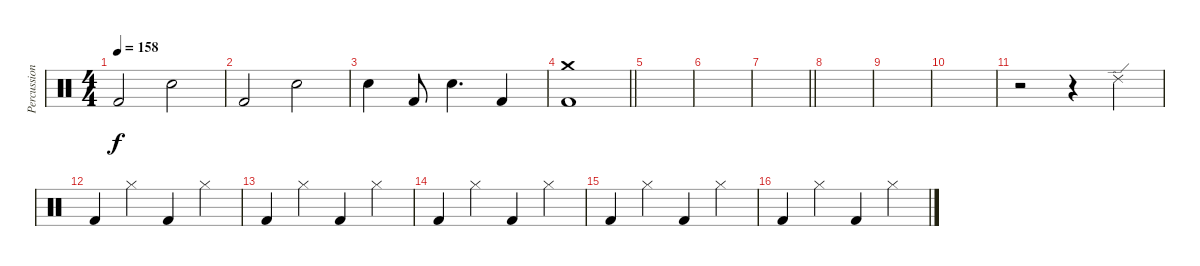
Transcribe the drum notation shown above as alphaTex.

\track ("Percussions" "Percussion") {instrument percussion}
\staff {score}
\articulation defaults
\ts (4 4)
\tempo 158
\clef neutral
\ks c "Kick (hit) 2".2{dy f} "Electric Snare (hit)".2
|
"Kick (hit) 2".2 "Electric Snare (hit)".2 |
"Electric Snare (hit)".4 "Kick (hit) 2".8 "Electric Snare (hit)".4{d} "Kick (hit) 2".4 |
\barLineRight lightlight
("Crash medium (hit)" "Kick (hit) 2").1 |
|
|
\barLineRight lightlight
|
|
|
|
r.2 r.4 "Ride (edge) 2".4 |
"Kick (hit) 2".4 "Hi-Hat (closed)".4 "Kick (hit) 2".4 "Hi-Hat (closed)".4 |
"Kick (hit) 2".4 "Hi-Hat (closed)".4 "Kick (hit) 2".4 "Hi-Hat (closed)".4 |
"Kick (hit) 2".4 "Hi-Hat (closed)".4 "Kick (hit) 2".4 "Hi-Hat (closed)".4 |
"Kick (hit) 2".4 "Hi-Hat (closed)".4 "Kick (hit) 2".4 "Hi-Hat (closed)".4 |
"Kick (hit) 2".4 "Hi-Hat (closed)".4 "Kick (hit) 2".4 "Hi-Hat (closed)".4
